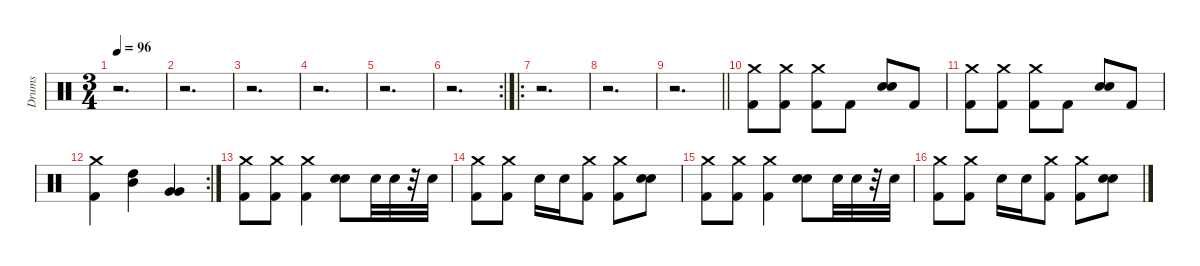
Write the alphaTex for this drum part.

\defaultSystemsLayout 4
\hideDynamics
\bracketExtendMode nobrackets
\firstSystemTrackNameMode fullname
\otherSystemsTrackNameOrientation horizontal
\track ("Drums" "drm.") {instrument percussion}
\staff {score}
\articulation defaults
\ts (3 4)
\beaming (8 2 2 2)
\tempo 96
\clef neutral
\ks c
r.2{d dy fff beam Down} |
r.2{d beam Down} |
r.2{d beam Down} |
r.2{d beam Down} |
r.2{d beam Down} |
\rc 2
r.2{d beam Down} |
\ro
r.2{d beam Down} |
r.2{d beam Down} |
\barLineRight lightlight
r.2{d beam Down} |
("Kick (hit) 2" "Crash medium (hit)").8{beam Down} ("Kick (hit) 2" "Crash medium (hit)").8{beam Down} ("Crash medium (hit)" "Kick (hit) 2").8{beam Down} "Kick (hit) 2".8{beam Down} ("Snare (hit) 2" "Snare (hit) 2").8{dy f beam Up} "Kick (hit) 2".8{dy fff beam Up} |
("Kick (hit) 2" "Crash medium (hit)").8{beam Down} ("Kick (hit) 2" "Crash medium (hit)").8{beam Down} ("Crash medium (hit)" "Kick (hit) 2").8{beam Down} "Kick (hit) 2".8{beam Down} ("Snare (hit) 2" "Snare (hit) 2").8{dy f beam Up} "Kick (hit) 2".8{dy fff beam Up} |
\rc 2
("Kick (hit) 2" "Crash medium (hit)").4{beam Down} ("High Tom (hit)" "Mid Tom (hit)").4{beam Down} ("Very Low Tom (hit)" "Very Low Tom (hit)").4{dy f beam Up} |
("Kick (hit) 2" "Crash medium (hit)").8{dy fff beam Down} ("Kick (hit) 2" "Crash medium (hit)").8{beam Down} ("Kick (hit) 2" "Crash medium (hit)").4{beam Down} ("Snare (hit) 2" "Snare (hit) 2").8{dy f beam Down} "Snare (hit) 2".32{dy fff beam Down} "Snare (hit) 2".32{beam Down} r.32{beam Down} "Snare (hit) 2".32{beam Down} |
("Kick (hit) 2" "Crash medium (hit)").8{beam Down} ("Kick (hit) 2" "Crash medium (hit)").8{beam Down} "Snare (hit) 2".16{beam Down} "Snare (hit) 2".16{beam Down} ("Crash medium (hit)" "Kick (hit) 2").8{beam Down} ("Crash medium (hit)" "Kick (hit) 2").8{beam Down} ("Snare (hit) 2" "Snare (hit) 2").8{dy f beam Down} |
("Kick (hit) 2" "Crash medium (hit)").8{dy fff beam Down} ("Kick (hit) 2" "Crash medium (hit)").8{beam Down} ("Kick (hit) 2" "Crash medium (hit)").4{beam Down} ("Snare (hit) 2" "Snare (hit) 2").8{dy f beam Down} "Snare (hit) 2".32{dy fff beam Down} "Snare (hit) 2".32{beam Down} r.32{beam Down} "Snare (hit) 2".32{beam Down} |
("Kick (hit) 2" "Crash medium (hit)").8{beam Down} ("Kick (hit) 2" "Crash medium (hit)").8{beam Down} "Snare (hit) 2".16{beam Down} "Snare (hit) 2".16{beam Down} ("Crash medium (hit)" "Kick (hit) 2").8{beam Down} ("Crash medium (hit)" "Kick (hit) 2").8{beam Down} ("Snare (hit) 2" "Snare (hit) 2").8{dy f beam Down}
